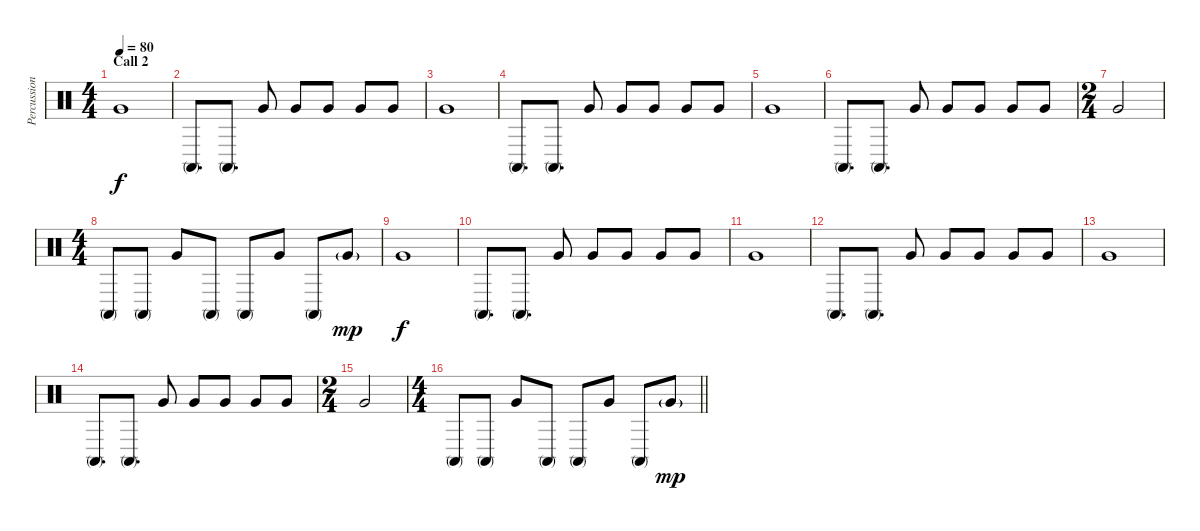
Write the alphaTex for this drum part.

\track ("Percussion" "Percussion") {instrument percussion}
\staff {score}
\articulation defaults
\ts (4 4)
\section ("" "Call 2")
\tempo 80
\clef neutral
\ks c "Very Low Tom (hit)".1{dy f}
|
"Conga high (mute)".8{d} "Conga high (mute)".8{d} "Very Low Tom (hit)".8 "Very Low Tom (hit)".8 "Very Low Tom (hit)".8 "Very Low Tom (hit)".8 "Very Low Tom (hit)".8 |
"Very Low Tom (hit)".1 |
"Conga high (mute)".8{d} "Conga high (mute)".8{d} "Very Low Tom (hit)".8 "Very Low Tom (hit)".8 "Very Low Tom (hit)".8 "Very Low Tom (hit)".8 "Very Low Tom (hit)".8 |
"Very Low Tom (hit)".1 |
"Conga high (mute)".8{d} "Conga high (mute)".8{d} "Very Low Tom (hit)".8 "Very Low Tom (hit)".8 "Very Low Tom (hit)".8 "Very Low Tom (hit)".8 "Very Low Tom (hit)".8 |
\ts (2 4)
"Very Low Tom (hit)".2 |
\ts (4 4)
"Conga high (mute)".8 "Conga high (mute)".8 "Very Low Tom (hit)".8 "Conga high (mute)".8 "Conga high (mute)".8 "Very Low Tom (hit)".8 "Conga high (mute)".8 "Very Low Tom (hit)"{g}.8{dy mp} |
"Very Low Tom (hit)".1{dy f} |
"Conga high (mute)".8{d} "Conga high (mute)".8{d} "Very Low Tom (hit)".8 "Very Low Tom (hit)".8 "Very Low Tom (hit)".8 "Very Low Tom (hit)".8 "Very Low Tom (hit)".8 |
"Very Low Tom (hit)".1 |
"Conga high (mute)".8{d} "Conga high (mute)".8{d} "Very Low Tom (hit)".8 "Very Low Tom (hit)".8 "Very Low Tom (hit)".8 "Very Low Tom (hit)".8 "Very Low Tom (hit)".8 |
"Very Low Tom (hit)".1 |
"Conga high (mute)".8{d} "Conga high (mute)".8{d} "Very Low Tom (hit)".8 "Very Low Tom (hit)".8 "Very Low Tom (hit)".8 "Very Low Tom (hit)".8 "Very Low Tom (hit)".8 |
\ts (2 4)
"Very Low Tom (hit)".2 |
\ts (4 4)
\barLineRight lightlight "Conga high (mute)".8 "Conga high (mute)".8 "Very Low Tom (hit)".8 "Conga high (mute)".8 "Conga high (mute)".8 "Very Low Tom (hit)".8 "Conga high (mute)".8 "Very Low Tom (hit)"{g}.8{dy mp}
